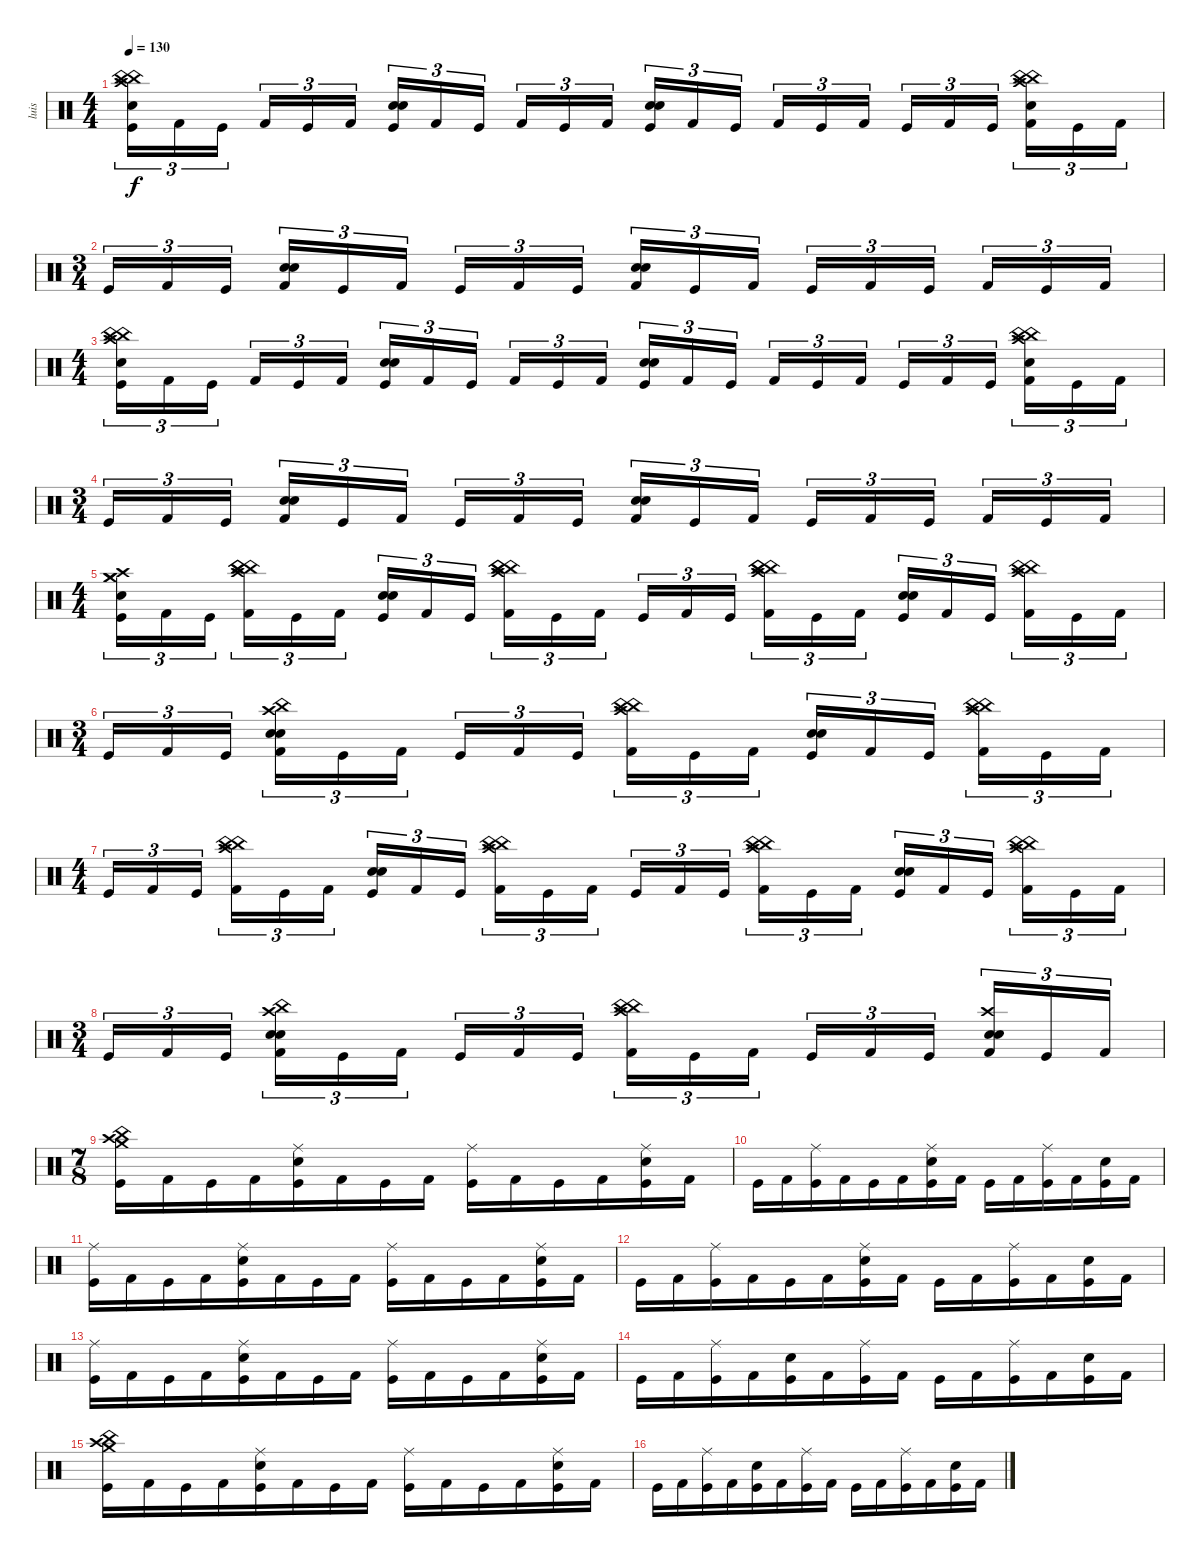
\track ("luis" "luis") {instrument percussion}
\staff {score}
\articulation defaults
\ts (4 4)
\tempo 130
\clef neutral
\ks c
("China (hit)" "China (hit)" "Snare (hit) 2" "Crash high (hit)" "Kick (hit)").16{tu (3 2) dy f} "Kick (hit) 2".16{tu (3 2)} "Kick (hit)".16{tu (3 2)} "Kick (hit) 2".16{tu (3 2)} "Kick (hit)".16{tu (3 2)} "Kick (hit) 2".16{tu (3 2)} ("Snare (hit) 2" "Snare (hit) 2" "Kick (hit)").16{tu (3 2)} "Kick (hit) 2".16{tu (3 2)} "Kick (hit)".16{tu (3 2)} "Kick (hit) 2".16{tu (3 2)} "Kick (hit)".16{tu (3 2)} "Kick (hit) 2".16{tu (3 2)} ("Snare (hit) 2" "Snare (hit) 2" "Kick (hit)").16{tu (3 2)} "Kick (hit) 2".16{tu (3 2)} "Kick (hit)".16{tu (3 2)} "Kick (hit) 2".16{tu (3 2)} "Kick (hit)".16{tu (3 2)} "Kick (hit) 2".16{tu (3 2)} "Kick (hit)".16{tu (3 2)} "Kick (hit) 2".16{tu (3 2)} "Kick (hit)".16{tu (3 2)} ("China (hit)" "China (hit)" "Snare (hit) 2" "Crash high (hit)" "Kick (hit) 2").16{tu (3 2)} "Kick (hit)".16{tu (3 2)} "Kick (hit) 2".16{tu (3 2)} |
\ts (3 4)
"Kick (hit)".16{tu (3 2)} "Kick (hit) 2".16{tu (3 2)} "Kick (hit)".16{tu (3 2)} ("Snare (hit) 2" "Snare (hit) 2" "Kick (hit) 2").16{tu (3 2)} "Kick (hit)".16{tu (3 2)} "Kick (hit) 2".16{tu (3 2)} "Kick (hit)".16{tu (3 2)} "Kick (hit) 2".16{tu (3 2)} "Kick (hit)".16{tu (3 2)} ("Snare (hit) 2" "Snare (hit) 2" "Kick (hit) 2").16{tu (3 2)} "Kick (hit)".16{tu (3 2)} "Kick (hit) 2".16{tu (3 2)} "Kick (hit)".16{tu (3 2)} "Kick (hit) 2".16{tu (3 2)} "Kick (hit)".16{tu (3 2)} "Kick (hit) 2".16{tu (3 2)} "Kick (hit)".16{tu (3 2)} "Kick (hit) 2".16{tu (3 2)} |
\ts (4 4)
("China (hit)" "China (hit)" "Snare (hit) 2" "Crash high (hit)" "Kick (hit)").16{tu (3 2)} "Kick (hit) 2".16{tu (3 2)} "Kick (hit)".16{tu (3 2)} "Kick (hit) 2".16{tu (3 2)} "Kick (hit)".16{tu (3 2)} "Kick (hit) 2".16{tu (3 2)} ("Snare (hit) 2" "Snare (hit) 2" "Kick (hit)").16{tu (3 2)} "Kick (hit) 2".16{tu (3 2)} "Kick (hit)".16{tu (3 2)} "Kick (hit) 2".16{tu (3 2)} "Kick (hit)".16{tu (3 2)} "Kick (hit) 2".16{tu (3 2)} ("Snare (hit) 2" "Snare (hit) 2" "Kick (hit)").16{tu (3 2)} "Kick (hit) 2".16{tu (3 2)} "Kick (hit)".16{tu (3 2)} "Kick (hit) 2".16{tu (3 2)} "Kick (hit)".16{tu (3 2)} "Kick (hit) 2".16{tu (3 2)} "Kick (hit)".16{tu (3 2)} "Kick (hit) 2".16{tu (3 2)} "Kick (hit)".16{tu (3 2)} ("China (hit)" "China (hit)" "Snare (hit) 2" "Crash high (hit)" "Kick (hit) 2").16{tu (3 2)} "Kick (hit)".16{tu (3 2)} "Kick (hit) 2".16{tu (3 2)} |
\ts (3 4)
"Kick (hit)".16{tu (3 2)} "Kick (hit) 2".16{tu (3 2)} "Kick (hit)".16{tu (3 2)} ("Snare (hit) 2" "Snare (hit) 2" "Kick (hit) 2").16{tu (3 2)} "Kick (hit)".16{tu (3 2)} "Kick (hit) 2".16{tu (3 2)} "Kick (hit)".16{tu (3 2)} "Kick (hit) 2".16{tu (3 2)} "Kick (hit)".16{tu (3 2)} ("Snare (hit) 2" "Snare (hit) 2" "Kick (hit) 2").16{tu (3 2)} "Kick (hit)".16{tu (3 2)} "Kick (hit) 2".16{tu (3 2)} "Kick (hit)".16{tu (3 2)} "Kick (hit) 2".16{tu (3 2)} "Kick (hit)".16{tu (3 2)} "Kick (hit) 2".16{tu (3 2)} "Kick (hit)".16{tu (3 2)} "Kick (hit) 2".16{tu (3 2)} |
\ts (4 4)
("Crash medium (hit)" "Crash medium (hit)" "Snare (hit) 2" "Crash high (hit)" "Kick (hit)").16{tu (3 2)} "Kick (hit) 2".16{tu (3 2)} "Kick (hit)".16{tu (3 2)} ("Crash high (hit)" "China (hit)" "China (hit)" "China (hit)" "Kick (hit) 2").16{tu (3 2)} "Kick (hit)".16{tu (3 2)} "Kick (hit) 2".16{tu (3 2)} ("Snare (hit) 2" "Snare (hit) 2" "Kick (hit)").16{tu (3 2)} "Kick (hit) 2".16{tu (3 2)} "Kick (hit)".16{tu (3 2)} ("Crash high (hit)" "China (hit)" "China (hit)" "China (hit)" "Kick (hit) 2").16{tu (3 2)} "Kick (hit)".16{tu (3 2)} "Kick (hit) 2".16{tu (3 2)} "Kick (hit)".16{tu (3 2)} "Kick (hit) 2".16{tu (3 2)} "Kick (hit)".16{tu (3 2)} ("Crash high (hit)" "China (hit)" "China (hit)" "China (hit)" "Kick (hit) 2").16{tu (3 2)} "Kick (hit)".16{tu (3 2)} "Kick (hit) 2".16{tu (3 2)} ("Snare (hit) 2" "Snare (hit) 2" "Kick (hit)").16{tu (3 2)} "Kick (hit) 2".16{tu (3 2)} "Kick (hit)".16{tu (3 2)} ("Crash high (hit)" "China (hit)" "China (hit)" "Kick (hit) 2").16{tu (3 2)} "Kick (hit)".16{tu (3 2)} "Kick (hit) 2".16{tu (3 2)} |
\ts (3 4)
"Kick (hit)".16{tu (3 2)} "Kick (hit) 2".16{tu (3 2)} "Kick (hit)".16{tu (3 2)} ("Crash high (hit)" "Snare (hit) 2" "Snare (hit) 2" "China (hit)" "Kick (hit) 2").16{tu (3 2)} "Kick (hit)".16{tu (3 2)} "Kick (hit) 2".16{tu (3 2)} "Kick (hit)".16{tu (3 2)} "Kick (hit) 2".16{tu (3 2)} "Kick (hit)".16{tu (3 2)} ("Crash high (hit)" "China (hit)" "China (hit)" "Kick (hit) 2").16{tu (3 2)} "Kick (hit)".16{tu (3 2)} "Kick (hit) 2".16{tu (3 2)} ("Snare (hit) 2" "Snare (hit) 2" "Kick (hit)").16{tu (3 2)} "Kick (hit) 2".16{tu (3 2)} "Kick (hit)".16{tu (3 2)} ("Crash high (hit)" "China (hit)" "China (hit)" "Kick (hit) 2").16{tu (3 2)} "Kick (hit)".16{tu (3 2)} "Kick (hit) 2".16{tu (3 2)} |
\ts (4 4)
"Kick (hit)".16{tu (3 2)} "Kick (hit) 2".16{tu (3 2)} "Kick (hit)".16{tu (3 2)} ("Crash high (hit)" "China (hit)" "China (hit)" "Kick (hit) 2").16{tu (3 2)} "Kick (hit)".16{tu (3 2)} "Kick (hit) 2".16{tu (3 2)} ("Snare (hit) 2" "Snare (hit) 2" "Kick (hit)").16{tu (3 2)} "Kick (hit) 2".16{tu (3 2)} "Kick (hit)".16{tu (3 2)} ("Crash high (hit)" "China (hit)" "China (hit)" "Kick (hit) 2").16{tu (3 2)} "Kick (hit)".16{tu (3 2)} "Kick (hit) 2".16{tu (3 2)} "Kick (hit)".16{tu (3 2)} "Kick (hit) 2".16{tu (3 2)} "Kick (hit)".16{tu (3 2)} ("Crash high (hit)" "China (hit)" "China (hit)" "Kick (hit) 2").16{tu (3 2)} "Kick (hit)".16{tu (3 2)} "Kick (hit) 2".16{tu (3 2)} ("Snare (hit) 2" "Snare (hit) 2" "Kick (hit)").16{tu (3 2)} "Kick (hit) 2".16{tu (3 2)} "Kick (hit)".16{tu (3 2)} ("Crash high (hit)" "China (hit)" "China (hit)" "Kick (hit) 2").16{tu (3 2)} "Kick (hit)".16{tu (3 2)} "Kick (hit) 2".16{tu (3 2)} |
\ts (3 4)
"Kick (hit)".16{tu (3 2)} "Kick (hit) 2".16{tu (3 2)} "Kick (hit)".16{tu (3 2)} ("Crash high (hit)" "Snare (hit) 2" "Snare (hit) 2" "China (hit)" "Kick (hit) 2").16{tu (3 2)} "Kick (hit)".16{tu (3 2)} "Kick (hit) 2".16{tu (3 2)} "Kick (hit)".16{tu (3 2)} "Kick (hit) 2".16{tu (3 2)} "Kick (hit)".16{tu (3 2)} ("Crash high (hit)" "China (hit)" "China (hit)" "Kick (hit) 2").16{tu (3 2)} "Kick (hit)".16{tu (3 2)} "Kick (hit) 2".16{tu (3 2)} "Kick (hit)".16{tu (3 2)} "Kick (hit) 2".16{tu (3 2)} "Kick (hit)".16{tu (3 2)} ("Crash high (hit)" "Snare (hit) 2" "Snare (hit) 2" "Kick (hit) 2").16{tu (3 2)} "Kick (hit)".16{tu (3 2)} "Kick (hit) 2".16{tu (3 2)} |
\ts (7 8)
("Crash medium (hit)" "China (hit)" "Crash high (hit)" "Kick (hit)").16 "Kick (hit) 2".16 "Kick (hit)".16 "Kick (hit) 2".16 ("Ride (middle)" "Snare (hit) 2" "Kick (hit)").16 "Kick (hit) 2".16 "Kick (hit)".16 "Kick (hit) 2".16 ("Ride (middle)" "Kick (hit)").16 "Kick (hit) 2".16 "Kick (hit)".16 "Kick (hit) 2".16 ("Ride (middle)" "Snare (hit) 2" "Kick (hit)").16 "Kick (hit) 2".16 |
"Kick (hit)".16 "Kick (hit) 2".16 ("Ride (middle)" "Kick (hit)").16 "Kick (hit) 2".16 "Kick (hit)".16 "Kick (hit) 2".16 ("Ride (middle)" "Snare (hit) 2" "Kick (hit)").16 "Kick (hit) 2".16 "Kick (hit)".16 "Kick (hit) 2".16 ("Ride (middle)" "Kick (hit)").16 "Kick (hit) 2".16 ("Snare (hit) 2" "Kick (hit)").16 "Kick (hit) 2".16 |
("Ride (middle)" "Kick (hit)").16 "Kick (hit) 2".16 "Kick (hit)".16 "Kick (hit) 2".16 ("Ride (middle)" "Snare (hit) 2" "Kick (hit)").16 "Kick (hit) 2".16 "Kick (hit)".16 "Kick (hit) 2".16 ("Ride (middle)" "Kick (hit)").16 "Kick (hit) 2".16 "Kick (hit)".16 "Kick (hit) 2".16 ("Ride (middle)" "Snare (hit) 2" "Kick (hit)").16 "Kick (hit) 2".16 |
"Kick (hit)".16 "Kick (hit) 2".16 ("Ride (middle)" "Kick (hit)").16 "Kick (hit) 2".16 "Kick (hit)".16 "Kick (hit) 2".16 ("Ride (middle)" "Snare (hit) 2" "Kick (hit)").16 "Kick (hit) 2".16 "Kick (hit)".16 "Kick (hit) 2".16 ("Ride (middle)" "Kick (hit)").16 "Kick (hit) 2".16 ("Snare (hit) 2" "Kick (hit)").16 "Kick (hit) 2".16 |
("Ride (middle)" "Kick (hit)").16 "Kick (hit) 2".16 "Kick (hit)".16 "Kick (hit) 2".16 ("Ride (middle)" "Snare (hit) 2" "Kick (hit)").16 "Kick (hit) 2".16 "Kick (hit)".16 "Kick (hit) 2".16 ("Ride (middle)" "Kick (hit)").16 "Kick (hit) 2".16 "Kick (hit)".16 "Kick (hit) 2".16 ("Ride (middle)" "Snare (hit) 2" "Kick (hit)").16 "Kick (hit) 2".16 |
"Kick (hit)".16 "Kick (hit) 2".16 ("Ride (middle)" "Kick (hit)").16 "Kick (hit) 2".16 ("Snare (hit) 2" "Kick (hit)").16 "Kick (hit) 2".16 ("Ride (middle)" "Kick (hit)").16 "Kick (hit) 2".16 "Kick (hit)".16 "Kick (hit) 2".16 ("Ride (middle)" "Kick (hit)").16 "Kick (hit) 2".16 ("Snare (hit) 2" "Kick (hit)").16 "Kick (hit) 2".16 |
("Crash medium (hit)" "China (hit)" "Crash high (hit)" "Kick (hit)").16 "Kick (hit) 2".16 "Kick (hit)".16 "Kick (hit) 2".16 ("Ride (middle)" "Snare (hit) 2" "Kick (hit)").16 "Kick (hit) 2".16 "Kick (hit)".16 "Kick (hit) 2".16 ("Ride (middle)" "Kick (hit)").16 "Kick (hit) 2".16 "Kick (hit)".16 "Kick (hit) 2".16 ("Ride (middle)" "Snare (hit) 2" "Kick (hit)").16 "Kick (hit) 2".16 |
"Kick (hit)".16 "Kick (hit) 2".16 ("Ride (middle)" "Kick (hit)").16 "Kick (hit) 2".16 ("Snare (hit) 2" "Kick (hit)").16 "Kick (hit) 2".16 ("Ride (middle)" "Kick (hit)").16 "Kick (hit) 2".16 "Kick (hit)".16 "Kick (hit) 2".16 ("Ride (middle)" "Kick (hit)").16 "Kick (hit) 2".16 ("Snare (hit) 2" "Kick (hit)").16 "Kick (hit) 2".16
